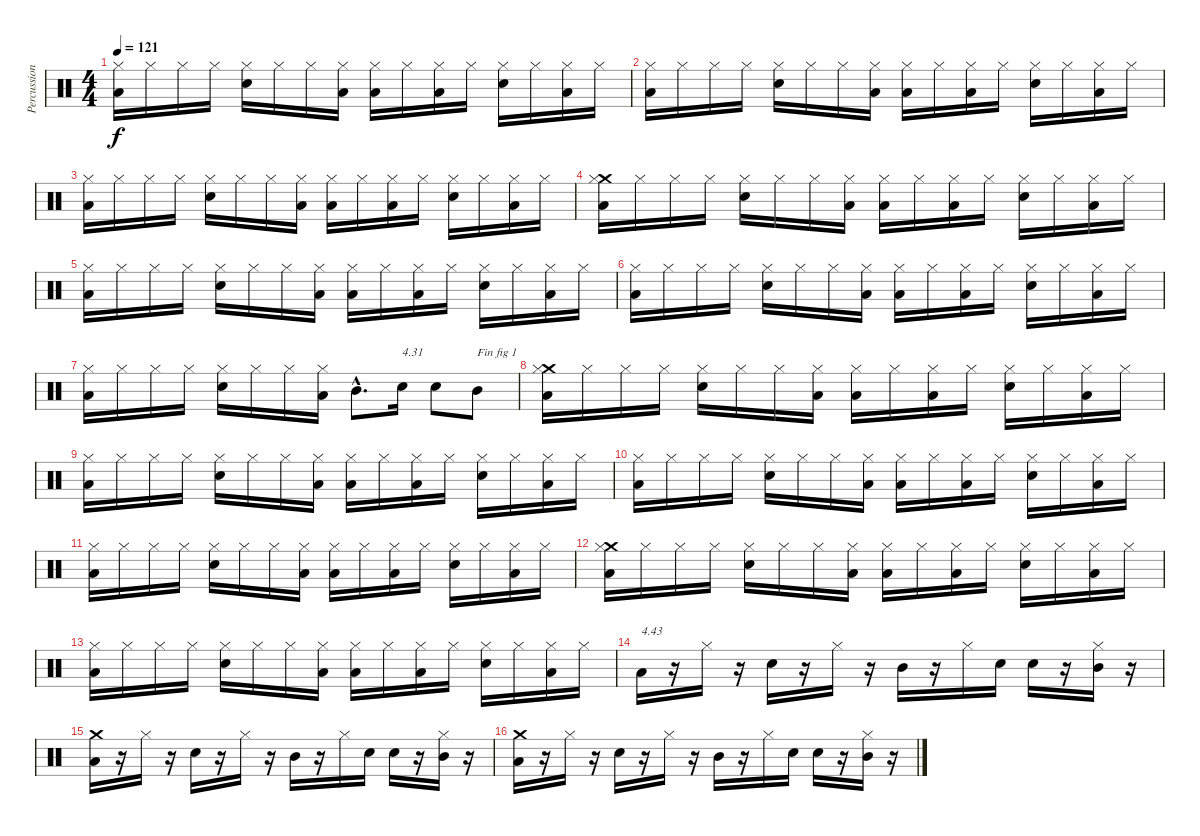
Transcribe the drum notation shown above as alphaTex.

\track ("Percussions" "Percussion") {instrument percussion}
\staff {score}
\articulation defaults
\ts (4 4)
\tempo 121
\clef neutral
\ks c
("Low Floor Tom (hit)" "Hi-Hat (closed)").16{dy f} "Hi-Hat (closed)".16 "Hi-Hat (closed)".16 "Hi-Hat (closed)".16 ("Electric Snare (hit)" "Hi-Hat (closed)").16 "Hi-Hat (closed)".16 "Hi-Hat (closed)".16 ("Low Floor Tom (hit)" "Hi-Hat (closed)").16 ("Low Floor Tom (hit)" "Hi-Hat (closed)").16 "Hi-Hat (closed)".16 ("Low Floor Tom (hit)" "Hi-Hat (closed)").16 "Hi-Hat (closed)".16 ("Electric Snare (hit)" "Hi-Hat (closed)").16 "Hi-Hat (closed)".16 ("Low Floor Tom (hit)" "Hi-Hat (closed)").16 "Hi-Hat (closed)".16 |
("Low Floor Tom (hit)" "Hi-Hat (closed)").16 "Hi-Hat (closed)".16 "Hi-Hat (closed)".16 "Hi-Hat (closed)".16 ("Electric Snare (hit)" "Hi-Hat (closed)").16 "Hi-Hat (closed)".16 "Hi-Hat (closed)".16 ("Low Floor Tom (hit)" "Hi-Hat (closed)").16 ("Low Floor Tom (hit)" "Hi-Hat (closed)").16 "Hi-Hat (closed)".16 ("Low Floor Tom (hit)" "Hi-Hat (closed)").16 "Hi-Hat (closed)".16 ("Electric Snare (hit)" "Hi-Hat (closed)").16 "Hi-Hat (closed)".16 ("Low Floor Tom (hit)" "Hi-Hat (closed)").16 "Hi-Hat (closed)".16 |
("Low Floor Tom (hit)" "Hi-Hat (closed)").16 "Hi-Hat (closed)".16 "Hi-Hat (closed)".16 "Hi-Hat (closed)".16 ("Electric Snare (hit)" "Hi-Hat (closed)").16 "Hi-Hat (closed)".16 "Hi-Hat (closed)".16 ("Low Floor Tom (hit)" "Hi-Hat (closed)").16 ("Low Floor Tom (hit)" "Hi-Hat (closed)").16 "Hi-Hat (closed)".16 ("Low Floor Tom (hit)" "Hi-Hat (closed)").16 "Hi-Hat (closed)".16 ("Electric Snare (hit)" "Hi-Hat (closed)").16 "Hi-Hat (closed)".16 ("Low Floor Tom (hit)" "Hi-Hat (closed)").16 "Hi-Hat (closed)".16 |
("Low Floor Tom (hit)" "Crash medium (hit)" "Hi-Hat (closed)").16 "Hi-Hat (closed)".16 "Hi-Hat (closed)".16 "Hi-Hat (closed)".16 ("Electric Snare (hit)" "Hi-Hat (closed)").16 "Hi-Hat (closed)".16 "Hi-Hat (closed)".16 ("Low Floor Tom (hit)" "Hi-Hat (closed)").16 ("Low Floor Tom (hit)" "Hi-Hat (closed)").16 "Hi-Hat (closed)".16 ("Low Floor Tom (hit)" "Hi-Hat (closed)").16 "Hi-Hat (closed)".16 ("Electric Snare (hit)" "Hi-Hat (closed)").16 "Hi-Hat (closed)".16 ("Low Floor Tom (hit)" "Hi-Hat (closed)").16 "Hi-Hat (closed)".16 |
("Low Floor Tom (hit)" "Hi-Hat (closed)").16 "Hi-Hat (closed)".16 "Hi-Hat (closed)".16 "Hi-Hat (closed)".16 ("Electric Snare (hit)" "Hi-Hat (closed)").16 "Hi-Hat (closed)".16 "Hi-Hat (closed)".16 ("Low Floor Tom (hit)" "Hi-Hat (closed)").16 ("Low Floor Tom (hit)" "Hi-Hat (closed)").16 "Hi-Hat (closed)".16 ("Low Floor Tom (hit)" "Hi-Hat (closed)").16 "Hi-Hat (closed)".16 ("Electric Snare (hit)" "Hi-Hat (closed)").16 "Hi-Hat (closed)".16 ("Low Floor Tom (hit)" "Hi-Hat (closed)").16 "Hi-Hat (closed)".16 |
("Low Floor Tom (hit)" "Hi-Hat (closed)").16 "Hi-Hat (closed)".16 "Hi-Hat (closed)".16 "Hi-Hat (closed)".16 ("Electric Snare (hit)" "Hi-Hat (closed)").16 "Hi-Hat (closed)".16 "Hi-Hat (closed)".16 ("Low Floor Tom (hit)" "Hi-Hat (closed)").16 ("Low Floor Tom (hit)" "Hi-Hat (closed)").16 "Hi-Hat (closed)".16 ("Low Floor Tom (hit)" "Hi-Hat (closed)").16 "Hi-Hat (closed)".16 ("Electric Snare (hit)" "Hi-Hat (closed)").16 "Hi-Hat (closed)".16 ("Low Floor Tom (hit)" "Hi-Hat (closed)").16 "Hi-Hat (closed)".16 |
("Low Floor Tom (hit)" "Hi-Hat (closed)").16 "Hi-Hat (closed)".16 "Hi-Hat (closed)".16 "Hi-Hat (closed)".16 ("Electric Snare (hit)" "Hi-Hat (closed)").16 "Hi-Hat (closed)".16 "Hi-Hat (closed)".16 ("Low Floor Tom (hit)" "Hi-Hat (closed)").16 "Mid Tom (hit)"{hac}.8{d} "Electric Snare (hit)".16{txt "4.31"} "Electric Snare (hit)".8 "Mid Tom (hit)".8{txt "Fin fig 1"} |
("Low Floor Tom (hit)" "Crash medium (hit)" "Hi-Hat (closed)").16 "Hi-Hat (closed)".16 "Hi-Hat (closed)".16 "Hi-Hat (closed)".16 ("Electric Snare (hit)" "Hi-Hat (closed)").16 "Hi-Hat (closed)".16 "Hi-Hat (closed)".16 ("Low Floor Tom (hit)" "Hi-Hat (closed)").16 ("Low Floor Tom (hit)" "Hi-Hat (closed)").16 "Hi-Hat (closed)".16 ("Low Floor Tom (hit)" "Hi-Hat (closed)").16 "Hi-Hat (closed)".16 ("Electric Snare (hit)" "Hi-Hat (closed)").16 "Hi-Hat (closed)".16 ("Low Floor Tom (hit)" "Hi-Hat (closed)").16 "Hi-Hat (closed)".16 |
("Low Floor Tom (hit)" "Hi-Hat (closed)").16 "Hi-Hat (closed)".16 "Hi-Hat (closed)".16 "Hi-Hat (closed)".16 ("Electric Snare (hit)" "Hi-Hat (closed)").16 "Hi-Hat (closed)".16 "Hi-Hat (closed)".16 ("Low Floor Tom (hit)" "Hi-Hat (closed)").16 ("Low Floor Tom (hit)" "Hi-Hat (closed)").16 "Hi-Hat (closed)".16 ("Low Floor Tom (hit)" "Hi-Hat (closed)").16 "Hi-Hat (closed)".16 ("Electric Snare (hit)" "Hi-Hat (closed)").16 "Hi-Hat (closed)".16 ("Low Floor Tom (hit)" "Hi-Hat (closed)").16 "Hi-Hat (closed)".16 |
("Low Floor Tom (hit)" "Hi-Hat (closed)").16 "Hi-Hat (closed)".16 "Hi-Hat (closed)".16 "Hi-Hat (closed)".16 ("Electric Snare (hit)" "Hi-Hat (closed)").16 "Hi-Hat (closed)".16 "Hi-Hat (closed)".16 ("Low Floor Tom (hit)" "Hi-Hat (closed)").16 ("Low Floor Tom (hit)" "Hi-Hat (closed)").16 "Hi-Hat (closed)".16 ("Low Floor Tom (hit)" "Hi-Hat (closed)").16 "Hi-Hat (closed)".16 ("Electric Snare (hit)" "Hi-Hat (closed)").16 "Hi-Hat (closed)".16 ("Low Floor Tom (hit)" "Hi-Hat (closed)").16 "Hi-Hat (closed)".16 |
("Low Floor Tom (hit)" "Hi-Hat (closed)").16 "Hi-Hat (closed)".16 "Hi-Hat (closed)".16 "Hi-Hat (closed)".16 ("Electric Snare (hit)" "Hi-Hat (closed)").16 "Hi-Hat (closed)".16 "Hi-Hat (closed)".16 ("Low Floor Tom (hit)" "Hi-Hat (closed)").16 ("Low Floor Tom (hit)" "Hi-Hat (closed)").16 "Hi-Hat (closed)".16 ("Low Floor Tom (hit)" "Hi-Hat (closed)").16 "Hi-Hat (closed)".16 ("Electric Snare (hit)" "Hi-Hat (closed)").16 "Hi-Hat (closed)".16 ("Low Floor Tom (hit)" "Hi-Hat (closed)").16 "Hi-Hat (closed)".16 |
("Low Floor Tom (hit)" "Crash medium (hit)" "Hi-Hat (closed)").16 "Hi-Hat (closed)".16 "Hi-Hat (closed)".16 "Hi-Hat (closed)".16 ("Electric Snare (hit)" "Hi-Hat (closed)").16 "Hi-Hat (closed)".16 "Hi-Hat (closed)".16 ("Low Floor Tom (hit)" "Hi-Hat (closed)").16 ("Low Floor Tom (hit)" "Hi-Hat (closed)").16 "Hi-Hat (closed)".16 ("Low Floor Tom (hit)" "Hi-Hat (closed)").16 "Hi-Hat (closed)".16 ("Electric Snare (hit)" "Hi-Hat (closed)").16 "Hi-Hat (closed)".16 ("Low Floor Tom (hit)" "Hi-Hat (closed)").16 "Hi-Hat (closed)".16 |
("Low Floor Tom (hit)" "Hi-Hat (closed)").16 "Hi-Hat (closed)".16 "Hi-Hat (closed)".16 "Hi-Hat (closed)".16 ("Electric Snare (hit)" "Hi-Hat (closed)").16 "Hi-Hat (closed)".16 "Hi-Hat (closed)".16 ("Low Floor Tom (hit)" "Hi-Hat (closed)").16 ("Low Floor Tom (hit)" "Hi-Hat (closed)").16 "Hi-Hat (closed)".16 ("Low Floor Tom (hit)" "Hi-Hat (closed)").16 "Hi-Hat (closed)".16 ("Electric Snare (hit)" "Hi-Hat (closed)").16 "Hi-Hat (closed)".16 ("Low Floor Tom (hit)" "Hi-Hat (closed)").16 "Hi-Hat (closed)".16 |
"Low Floor Tom (hit)".16{txt "4.43"} r.16 "Hi-Hat (closed)".16 r.16 "Electric Snare (hit)".16 r.16 "Hi-Hat (closed)".16 r.16 "Mid Tom (hit)".16 r.16 "Hi-Hat (closed)".16 "Electric Snare (hit)".16 "Electric Snare (hit)".16 r.16 ("Mid Tom (hit)" "Hi-Hat (closed)").16 r.16 |
("Low Floor Tom (hit)" "Crash medium (hit)").16 r.16 "Hi-Hat (closed)".16 r.16 "Electric Snare (hit)".16 r.16 "Hi-Hat (closed)".16 r.16 "Mid Tom (hit)".16 r.16 "Hi-Hat (closed)".16 "Electric Snare (hit)".16 "Electric Snare (hit)".16 r.16 ("Mid Tom (hit)" "Hi-Hat (closed)").16 r.16 |
("Low Floor Tom (hit)" "Crash medium (hit)").16 r.16 "Hi-Hat (closed)".16 r.16 "Electric Snare (hit)".16 r.16 "Hi-Hat (closed)".16 r.16 "Mid Tom (hit)".16 r.16 "Hi-Hat (closed)".16 "Electric Snare (hit)".16 "Electric Snare (hit)".16 r.16 ("Mid Tom (hit)" "Hi-Hat (closed)").16 r.16
